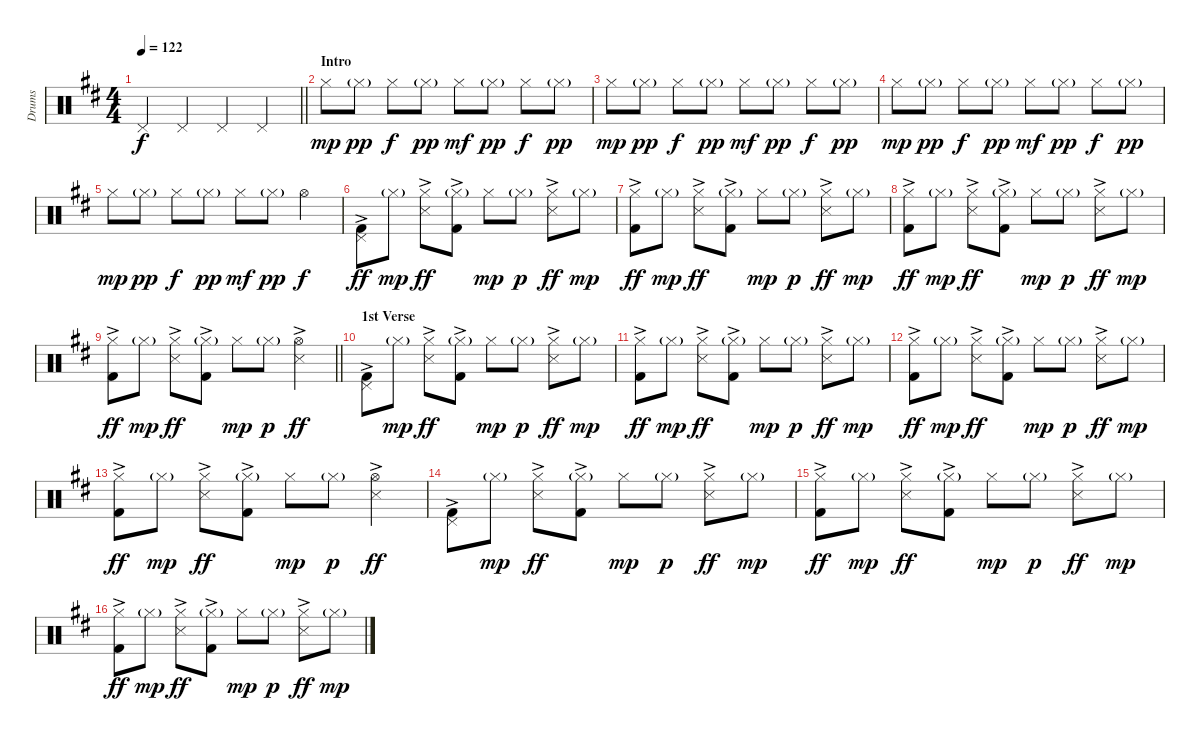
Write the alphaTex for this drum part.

\track ("Drums" "Drums") {instrument percussion}
\staff {score}
\articulation defaults
\ts (4 4)
\tempo 122
\clef neutral
\barLineRight lightlight
\ks d "Pedal Hi-Hat (hit)".4{dy f} "Pedal Hi-Hat (hit)".4 "Pedal Hi-Hat (hit)".4 "Pedal Hi-Hat (hit)".4
|
\section ("" "Intro")
"Hi-Hat (closed)".8{dy mp} "Hi-Hat (closed)"{g}.8{dy pp} "Hi-Hat (closed)".8{dy f} "Hi-Hat (closed)"{g}.8{dy pp} "Hi-Hat (closed)".8{dy mf} "Hi-Hat (closed)"{g}.8{dy pp} "Hi-Hat (closed)".8{dy f} "Hi-Hat (closed)"{g}.8{dy pp} |
"Hi-Hat (closed)".8{dy mp} "Hi-Hat (closed)"{g}.8{dy pp} "Hi-Hat (closed)".8{dy f} "Hi-Hat (closed)"{g}.8{dy pp} "Hi-Hat (closed)".8{dy mf} "Hi-Hat (closed)"{g}.8{dy pp} "Hi-Hat (closed)".8{dy f} "Hi-Hat (closed)"{g}.8{dy pp} |
"Hi-Hat (closed)".8{dy mp} "Hi-Hat (closed)"{g}.8{dy pp} "Hi-Hat (closed)".8{dy f} "Hi-Hat (closed)"{g}.8{dy pp} "Hi-Hat (closed)".8{dy mf} "Hi-Hat (closed)"{g}.8{dy pp} "Hi-Hat (closed)".8{dy f} "Hi-Hat (closed)"{g}.8{dy pp} |
"Hi-Hat (closed)".8{dy mp} "Hi-Hat (closed)"{g}.8{dy pp} "Hi-Hat (closed)".8{dy f} "Hi-Hat (closed)"{g}.8{dy pp} "Hi-Hat (closed)".8{dy mf} "Hi-Hat (closed)"{g}.8{dy pp} "Hi-Hat (open)".4{dy f} |
("Pedal Hi-Hat (hit)" "Kick (hit) 2"{ac}).8{dy ff} "Hi-Hat (closed)"{g}.8{dy mp} ("Hi-Hat (closed)" "Snare (side stick) 3"{ac}).8{dy ff} ("Hi-Hat (closed)"{g} "Kick (hit) 2"{ac}).8 "Hi-Hat (closed)".8{dy mp} "Hi-Hat (closed)"{g}.8{dy p} ("Hi-Hat (closed)" "Snare (side stick) 3"{ac}).8{dy ff} "Hi-Hat (closed)"{g}.8{dy mp} |
("Hi-Hat (closed)" "Kick (hit) 2"{ac}).8{dy ff} "Hi-Hat (closed)"{g}.8{dy mp} ("Hi-Hat (closed)" "Snare (side stick) 3"{ac}).8{dy ff} ("Hi-Hat (closed)"{g} "Kick (hit) 2"{ac}).8 "Hi-Hat (closed)".8{dy mp} "Hi-Hat (closed)"{g}.8{dy p} ("Hi-Hat (closed)" "Snare (side stick) 3"{ac}).8{dy ff} "Hi-Hat (closed)"{g}.8{dy mp} |
("Hi-Hat (closed)" "Kick (hit) 2"{ac}).8{dy ff} "Hi-Hat (closed)"{g}.8{dy mp} ("Hi-Hat (closed)" "Snare (side stick) 3"{ac}).8{dy ff} ("Hi-Hat (closed)"{g} "Kick (hit) 2"{ac}).8 "Hi-Hat (closed)".8{dy mp} "Hi-Hat (closed)"{g}.8{dy p} ("Hi-Hat (closed)" "Snare (side stick) 3"{ac}).8{dy ff} "Hi-Hat (closed)"{g}.8{dy mp} |
\barLineRight lightlight
("Hi-Hat (closed)" "Kick (hit) 2"{ac}).8{dy ff} "Hi-Hat (closed)"{g}.8{dy mp} ("Hi-Hat (closed)" "Snare (side stick) 3"{ac}).8{dy ff} ("Hi-Hat (closed)"{g} "Kick (hit) 2"{ac}).8 "Hi-Hat (closed)".8{dy mp} "Hi-Hat (closed)"{g}.8{dy p} ("Hi-Hat (open)" "Snare (side stick) 3"{ac}).4{dy ff} |
\section ("" "1st Verse")
("Pedal Hi-Hat (hit)" "Kick (hit) 2"{ac}).8 "Hi-Hat (closed)"{g}.8{dy mp} ("Hi-Hat (closed)" "Snare (side stick) 3"{ac}).8{dy ff} ("Hi-Hat (closed)"{g} "Kick (hit) 2"{ac}).8 "Hi-Hat (closed)".8{dy mp} "Hi-Hat (closed)"{g}.8{dy p} ("Hi-Hat (closed)" "Snare (side stick) 3"{ac}).8{dy ff} "Hi-Hat (closed)"{g}.8{dy mp} |
("Hi-Hat (closed)" "Kick (hit) 2"{ac}).8{dy ff} "Hi-Hat (closed)"{g}.8{dy mp} ("Hi-Hat (closed)" "Snare (side stick) 3"{ac}).8{dy ff} ("Hi-Hat (closed)"{g} "Kick (hit) 2"{ac}).8 "Hi-Hat (closed)".8{dy mp} "Hi-Hat (closed)"{g}.8{dy p} ("Hi-Hat (closed)" "Snare (side stick) 3"{ac}).8{dy ff} "Hi-Hat (closed)"{g}.8{dy mp} |
("Hi-Hat (closed)" "Kick (hit) 2"{ac}).8{dy ff} "Hi-Hat (closed)"{g}.8{dy mp} ("Hi-Hat (closed)" "Snare (side stick) 3"{ac}).8{dy ff} ("Hi-Hat (closed)"{g} "Kick (hit) 2"{ac}).8 "Hi-Hat (closed)".8{dy mp} "Hi-Hat (closed)"{g}.8{dy p} ("Hi-Hat (closed)" "Snare (side stick) 3"{ac}).8{dy ff} "Hi-Hat (closed)"{g}.8{dy mp} |
("Hi-Hat (closed)" "Kick (hit) 2"{ac}).8{dy ff} "Hi-Hat (closed)"{g}.8{dy mp} ("Hi-Hat (closed)" "Snare (side stick) 3"{ac}).8{dy ff} ("Hi-Hat (closed)"{g} "Kick (hit) 2"{ac}).8 "Hi-Hat (closed)".8{dy mp} "Hi-Hat (closed)"{g}.8{dy p} ("Hi-Hat (open)" "Snare (side stick) 3"{ac}).4{dy ff} |
("Pedal Hi-Hat (hit)" "Kick (hit) 2"{ac}).8 "Hi-Hat (closed)"{g}.8{dy mp} ("Hi-Hat (closed)" "Snare (side stick) 3"{ac}).8{dy ff} ("Hi-Hat (closed)"{g} "Kick (hit) 2"{ac}).8 "Hi-Hat (closed)".8{dy mp} "Hi-Hat (closed)"{g}.8{dy p} ("Hi-Hat (closed)" "Snare (side stick) 3"{ac}).8{dy ff} "Hi-Hat (closed)"{g}.8{dy mp} |
("Hi-Hat (closed)" "Kick (hit) 2"{ac}).8{dy ff} "Hi-Hat (closed)"{g}.8{dy mp} ("Hi-Hat (closed)" "Snare (side stick) 3"{ac}).8{dy ff} ("Hi-Hat (closed)"{g} "Kick (hit) 2"{ac}).8 "Hi-Hat (closed)".8{dy mp} "Hi-Hat (closed)"{g}.8{dy p} ("Hi-Hat (closed)" "Snare (side stick) 3"{ac}).8{dy ff} "Hi-Hat (closed)"{g}.8{dy mp} |
("Hi-Hat (closed)" "Kick (hit) 2"{ac}).8{dy ff} "Hi-Hat (closed)"{g}.8{dy mp} ("Hi-Hat (closed)" "Snare (side stick) 3"{ac}).8{dy ff} ("Hi-Hat (closed)"{g} "Kick (hit) 2"{ac}).8 "Hi-Hat (closed)".8{dy mp} "Hi-Hat (closed)"{g}.8{dy p} ("Hi-Hat (closed)" "Snare (side stick) 3"{ac}).8{dy ff} "Hi-Hat (closed)"{g}.8{dy mp}
